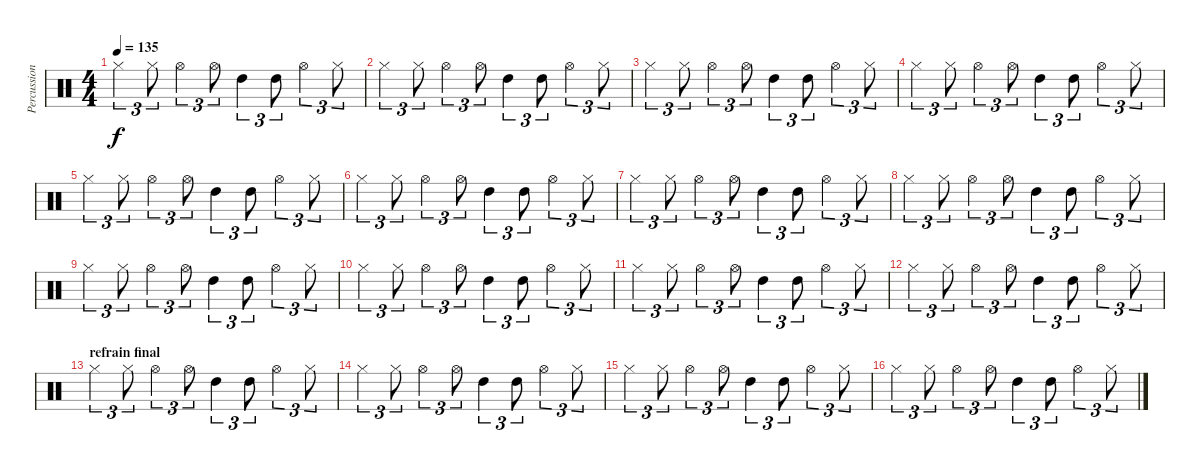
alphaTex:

\track ("Percussions" "Percussion") {instrument percussion}
\staff {score}
\articulation defaults
\ts (4 4)
\tempo 135
\clef neutral
\ks c "Hi-Hat (closed)".4{tu (3 2) dy f} "Hi-Hat (closed)".8{tu (3 2)} "Hi-Hat (open)".4{tu (3 2)} "Hi-Hat (open)".8{tu (3 2)} "High Tom (hit)".4{tu (3 2)} "High Tom (hit)".8{tu (3 2)} "Hi-Hat (open)".4{tu (3 2)} "Hi-Hat (closed)".8{tu (3 2)}
|
"Hi-Hat (closed)".4{tu (3 2)} "Hi-Hat (closed)".8{tu (3 2)} "Hi-Hat (open)".4{tu (3 2)} "Hi-Hat (open)".8{tu (3 2)} "High Tom (hit)".4{tu (3 2)} "High Tom (hit)".8{tu (3 2)} "Hi-Hat (open)".4{tu (3 2)} "Hi-Hat (closed)".8{tu (3 2)} |
"Hi-Hat (closed)".4{tu (3 2)} "Hi-Hat (closed)".8{tu (3 2)} "Hi-Hat (open)".4{tu (3 2)} "Hi-Hat (open)".8{tu (3 2)} "High Tom (hit)".4{tu (3 2)} "High Tom (hit)".8{tu (3 2)} "Hi-Hat (open)".4{tu (3 2)} "Hi-Hat (closed)".8{tu (3 2)} |
"Hi-Hat (closed)".4{tu (3 2)} "Hi-Hat (closed)".8{tu (3 2)} "Hi-Hat (open)".4{tu (3 2)} "Hi-Hat (open)".8{tu (3 2)} "High Tom (hit)".4{tu (3 2)} "High Tom (hit)".8{tu (3 2)} "Hi-Hat (open)".4{tu (3 2)} "Hi-Hat (closed)".8{tu (3 2)} |
"Hi-Hat (closed)".4{tu (3 2)} "Hi-Hat (closed)".8{tu (3 2)} "Hi-Hat (open)".4{tu (3 2)} "Hi-Hat (open)".8{tu (3 2)} "High Tom (hit)".4{tu (3 2)} "High Tom (hit)".8{tu (3 2)} "Hi-Hat (open)".4{tu (3 2)} "Hi-Hat (closed)".8{tu (3 2)} |
"Hi-Hat (closed)".4{tu (3 2)} "Hi-Hat (closed)".8{tu (3 2)} "Hi-Hat (open)".4{tu (3 2)} "Hi-Hat (open)".8{tu (3 2)} "High Tom (hit)".4{tu (3 2)} "High Tom (hit)".8{tu (3 2)} "Hi-Hat (open)".4{tu (3 2)} "Hi-Hat (closed)".8{tu (3 2)} |
"Hi-Hat (closed)".4{tu (3 2)} "Hi-Hat (closed)".8{tu (3 2)} "Hi-Hat (open)".4{tu (3 2)} "Hi-Hat (open)".8{tu (3 2)} "High Tom (hit)".4{tu (3 2)} "High Tom (hit)".8{tu (3 2)} "Hi-Hat (open)".4{tu (3 2)} "Hi-Hat (closed)".8{tu (3 2)} |
"Hi-Hat (closed)".4{tu (3 2)} "Hi-Hat (closed)".8{tu (3 2)} "Hi-Hat (open)".4{tu (3 2)} "Hi-Hat (open)".8{tu (3 2)} "High Tom (hit)".4{tu (3 2)} "High Tom (hit)".8{tu (3 2)} "Hi-Hat (open)".4{tu (3 2)} "Hi-Hat (closed)".8{tu (3 2)} |
"Hi-Hat (closed)".4{tu (3 2)} "Hi-Hat (closed)".8{tu (3 2)} "Hi-Hat (open)".4{tu (3 2)} "Hi-Hat (open)".8{tu (3 2)} "High Tom (hit)".4{tu (3 2)} "High Tom (hit)".8{tu (3 2)} "Hi-Hat (open)".4{tu (3 2)} "Hi-Hat (closed)".8{tu (3 2)} |
"Hi-Hat (closed)".4{tu (3 2)} "Hi-Hat (closed)".8{tu (3 2)} "Hi-Hat (open)".4{tu (3 2)} "Hi-Hat (open)".8{tu (3 2)} "High Tom (hit)".4{tu (3 2)} "High Tom (hit)".8{tu (3 2)} "Hi-Hat (open)".4{tu (3 2)} "Hi-Hat (closed)".8{tu (3 2)} |
"Hi-Hat (closed)".4{tu (3 2)} "Hi-Hat (closed)".8{tu (3 2)} "Hi-Hat (open)".4{tu (3 2)} "Hi-Hat (open)".8{tu (3 2)} "High Tom (hit)".4{tu (3 2)} "High Tom (hit)".8{tu (3 2)} "Hi-Hat (open)".4{tu (3 2)} "Hi-Hat (closed)".8{tu (3 2)} |
"Hi-Hat (closed)".4{tu (3 2)} "Hi-Hat (closed)".8{tu (3 2)} "Hi-Hat (open)".4{tu (3 2)} "Hi-Hat (open)".8{tu (3 2)} "High Tom (hit)".4{tu (3 2)} "High Tom (hit)".8{tu (3 2)} "Hi-Hat (open)".4{tu (3 2)} "Hi-Hat (closed)".8{tu (3 2)} |
\section ("" "refrain final")
"Hi-Hat (closed)".4{tu (3 2)} "Hi-Hat (closed)".8{tu (3 2)} "Hi-Hat (open)".4{tu (3 2)} "Hi-Hat (open)".8{tu (3 2)} "High Tom (hit)".4{tu (3 2)} "High Tom (hit)".8{tu (3 2)} "Hi-Hat (open)".4{tu (3 2)} "Hi-Hat (closed)".8{tu (3 2)} |
"Hi-Hat (closed)".4{tu (3 2)} "Hi-Hat (closed)".8{tu (3 2)} "Hi-Hat (open)".4{tu (3 2)} "Hi-Hat (open)".8{tu (3 2)} "High Tom (hit)".4{tu (3 2)} "High Tom (hit)".8{tu (3 2)} "Hi-Hat (open)".4{tu (3 2)} "Hi-Hat (closed)".8{tu (3 2)} |
"Hi-Hat (closed)".4{tu (3 2)} "Hi-Hat (closed)".8{tu (3 2)} "Hi-Hat (open)".4{tu (3 2)} "Hi-Hat (open)".8{tu (3 2)} "High Tom (hit)".4{tu (3 2)} "High Tom (hit)".8{tu (3 2)} "Hi-Hat (open)".4{tu (3 2)} "Hi-Hat (closed)".8{tu (3 2)} |
"Hi-Hat (closed)".4{tu (3 2)} "Hi-Hat (closed)".8{tu (3 2)} "Hi-Hat (open)".4{tu (3 2)} "Hi-Hat (open)".8{tu (3 2)} "High Tom (hit)".4{tu (3 2)} "High Tom (hit)".8{tu (3 2)} "Hi-Hat (open)".4{tu (3 2)} "Hi-Hat (closed)".8{tu (3 2)}
